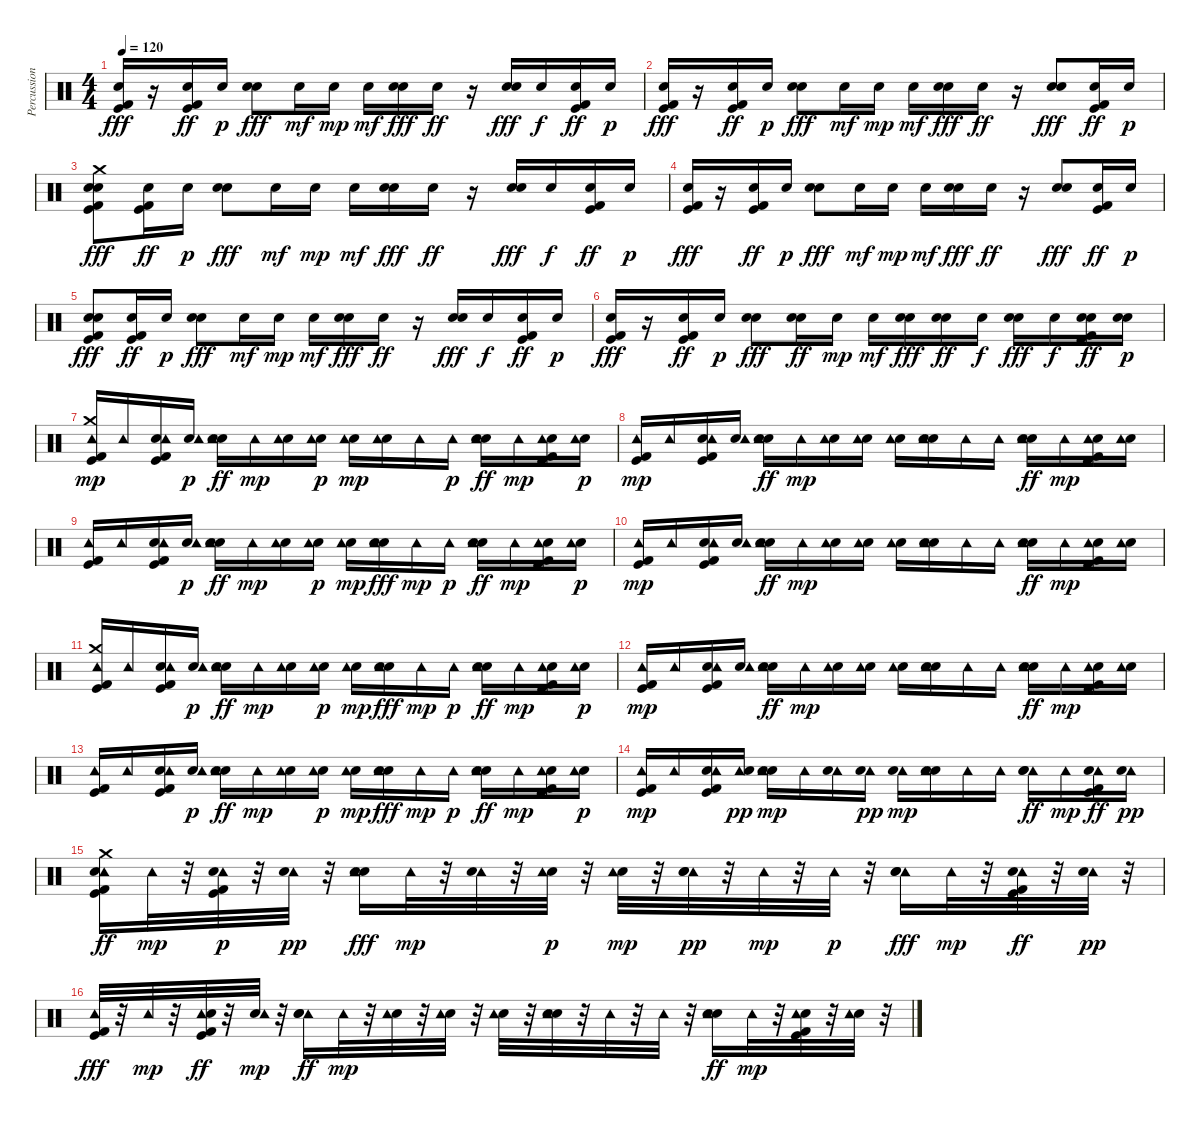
\track ("Percussions" "Percussion") {instrument percussion}
\staff {score}
\articulation defaults
\ts (4 4)
\tempo 120
\clef neutral
\ks c
("Electric Snare (hit)" "Kick (hit) 2" "Kick (hit)").16{dy fff} r.16 ("Electric Snare (hit)" "Kick (hit) 2" "Kick (hit)").16{dy ff} "Electric Snare (hit)".16{dy p} ("Snare (hit) 2" "Electric Snare (hit)").8{dy fff} "Electric Snare (hit)".16{dy mf} "Electric Snare (hit)".16{dy mp} "Electric Snare (hit)".16{dy mf} ("Electric Snare (hit)" "Snare (hit) 2").16{dy fff} "Electric Snare (hit)".16{dy ff} r.16 ("Snare (hit) 2" "Electric Snare (hit)").16{dy fff} "Electric Snare (hit)".16{dy f} ("Electric Snare (hit)" "Kick (hit) 2" "Kick (hit)").16{dy ff} "Electric Snare (hit)".16{dy p} |
("Electric Snare (hit)" "Kick (hit) 2" "Kick (hit)").16{dy fff} r.16 ("Electric Snare (hit)" "Kick (hit) 2" "Kick (hit)").16{dy ff} "Electric Snare (hit)".16{dy p} ("Snare (hit) 2" "Electric Snare (hit)").8{dy fff} "Electric Snare (hit)".16{dy mf} "Electric Snare (hit)".16{dy mp} "Electric Snare (hit)".16{dy mf} ("Electric Snare (hit)" "Snare (hit) 2").16{dy fff} "Electric Snare (hit)".16{dy ff} r.16 ("Electric Snare (hit)" "Snare (hit) 2").8{dy fff} ("Electric Snare (hit)" "Kick (hit) 2" "Kick (hit)").16{dy ff} "Electric Snare (hit)".16{dy p} |
("Electric Snare (hit)" "Kick (hit) 2" "Kick (hit)" "Crash medium (hit)" "Snare (hit) 2").8{dy fff} ("Electric Snare (hit)" "Kick (hit) 2" "Kick (hit)").16{dy ff} "Electric Snare (hit)".16{dy p} ("Snare (hit) 2" "Electric Snare (hit)").8{dy fff} "Electric Snare (hit)".16{dy mf} "Electric Snare (hit)".16{dy mp} "Electric Snare (hit)".16{dy mf} ("Electric Snare (hit)" "Snare (hit) 2").16{dy fff} "Electric Snare (hit)".16{dy ff} r.16 ("Snare (hit) 2" "Electric Snare (hit)").16{dy fff} "Electric Snare (hit)".16{dy f} ("Electric Snare (hit)" "Kick (hit) 2" "Kick (hit)").16{dy ff} "Electric Snare (hit)".16{dy p} |
("Electric Snare (hit)" "Kick (hit) 2" "Kick (hit)").16{dy fff} r.16 ("Electric Snare (hit)" "Kick (hit) 2" "Kick (hit)").16{dy ff} "Electric Snare (hit)".16{dy p} ("Snare (hit) 2" "Electric Snare (hit)").8{dy fff} "Electric Snare (hit)".16{dy mf} "Electric Snare (hit)".16{dy mp} "Electric Snare (hit)".16{dy mf} ("Electric Snare (hit)" "Snare (hit) 2").16{dy fff} "Electric Snare (hit)".16{dy ff} r.16 ("Electric Snare (hit)" "Snare (hit) 2").8{dy fff} ("Electric Snare (hit)" "Kick (hit) 2" "Kick (hit)").16{dy ff} "Electric Snare (hit)".16{dy p} |
("Electric Snare (hit)" "Kick (hit) 2" "Kick (hit)" "Snare (hit) 2").8{dy fff} ("Electric Snare (hit)" "Kick (hit) 2" "Kick (hit)").16{dy ff} "Electric Snare (hit)".16{dy p} ("Snare (hit) 2" "Electric Snare (hit)").8{dy fff} "Electric Snare (hit)".16{dy mf} "Electric Snare (hit)".16{dy mp} "Electric Snare (hit)".16{dy mf} ("Electric Snare (hit)" "Snare (hit) 2").16{dy fff} "Electric Snare (hit)".16{dy ff} r.16 ("Snare (hit) 2" "Electric Snare (hit)").16{dy fff} "Electric Snare (hit)".16{dy f} ("Electric Snare (hit)" "Kick (hit) 2" "Kick (hit)").16{dy ff} "Electric Snare (hit)".16{dy p} |
("Electric Snare (hit)" "Kick (hit) 2" "Kick (hit)").16{dy fff} r.16 ("Electric Snare (hit)" "Kick (hit) 2" "Kick (hit)").16{dy ff} "Electric Snare (hit)".16{dy p} ("Snare (hit) 2" "Electric Snare (hit)").8{dy fff} ("Electric Snare (hit)" "Snare (hit) 2").16{dy ff} "Electric Snare (hit)".16{dy mp} "Electric Snare (hit)".16{dy mf} ("Electric Snare (hit)" "Snare (hit) 2").16{dy fff} ("Electric Snare (hit)" "Snare (hit) 2").16{dy ff} "Snare (hit) 2".16{dy f} ("Electric Snare (hit)" "Snare (hit) 2").16{dy fff} "Snare (hit) 2".16{dy f} ("Electric Snare (hit)" "Kick (hit) 2" "Kick (hit)" "Snare (hit) 2").16{dy ff} ("Electric Snare (hit)" "Snare (hit) 2").16{dy p} |
("Kick (hit) 2" "Kick (hit)" "Crash medium (hit)" "Tambourine (hit)").16{dy mp} "Tambourine (hit)".16 ("Electric Snare (hit)" "Kick (hit) 2" "Kick (hit)" "Tambourine (hit)").16 ("Electric Snare (hit)" "Tambourine (hit)").16{dy p} ("Snare (hit) 2" "Tambourine (hit)" "Electric Snare (hit)").16{dy ff} "Tambourine (hit)".16{dy mp} ("Electric Snare (hit)" "Tambourine (hit)").16 ("Electric Snare (hit)" "Tambourine (hit)").16{dy p} ("Electric Snare (hit)" "Tambourine (hit)").16{dy mp} ("Electric Snare (hit)" "Tambourine (hit)").16 "Tambourine (hit)".16 "Tambourine (hit)".16{dy p} ("Snare (hit) 2" "Tambourine (hit)" "Electric Snare (hit)").16{dy ff} "Tambourine (hit)".16{dy mp} ("Electric Snare (hit)" "Kick (hit) 2" "Kick (hit)" "Tambourine (hit)").16 ("Electric Snare (hit)" "Tambourine (hit)").16{dy p} |
("Kick (hit) 2" "Kick (hit)" "Tambourine (hit)").16{dy mp} "Tambourine (hit)".16 ("Electric Snare (hit)" "Kick (hit) 2" "Kick (hit)" "Tambourine (hit)").16 ("Electric Snare (hit)" "Tambourine (hit)").16 ("Snare (hit) 2" "Tambourine (hit)" "Electric Snare (hit)").16{dy ff} "Tambourine (hit)".16{dy mp} ("Electric Snare (hit)" "Tambourine (hit)").16 ("Electric Snare (hit)" "Tambourine (hit)").16 ("Electric Snare (hit)" "Tambourine (hit)").16 ("Electric Snare (hit)" "Snare (hit) 2" "Tambourine (hit)").16 "Tambourine (hit)".16 "Tambourine (hit)".16 ("Snare (hit) 2" "Tambourine (hit)" "Electric Snare (hit)").16{dy ff} "Tambourine (hit)".16{dy mp} ("Electric Snare (hit)" "Kick (hit) 2" "Kick (hit)" "Tambourine (hit)").16 ("Electric Snare (hit)" "Tambourine (hit)").16 |
("Kick (hit) 2" "Kick (hit)" "Tambourine (hit)").16 "Tambourine (hit)".16 ("Electric Snare (hit)" "Kick (hit) 2" "Kick (hit)" "Tambourine (hit)").16 ("Electric Snare (hit)" "Tambourine (hit)").16{dy p} ("Snare (hit) 2" "Tambourine (hit)" "Electric Snare (hit)").16{dy ff} "Tambourine (hit)".16{dy mp} ("Electric Snare (hit)" "Tambourine (hit)").16 ("Electric Snare (hit)" "Tambourine (hit)").16{dy p} ("Electric Snare (hit)" "Tambourine (hit)").16{dy mp} ("Electric Snare (hit)" "Tambourine (hit)" "Snare (hit) 2").16{dy fff} "Tambourine (hit)".16{dy mp} "Tambourine (hit)".16{dy p} ("Snare (hit) 2" "Tambourine (hit)" "Electric Snare (hit)").16{dy ff} "Tambourine (hit)".16{dy mp} ("Electric Snare (hit)" "Kick (hit) 2" "Kick (hit)" "Tambourine (hit)").16 ("Electric Snare (hit)" "Tambourine (hit)").16{dy p} |
("Kick (hit) 2" "Kick (hit)" "Tambourine (hit)").16{dy mp} "Tambourine (hit)".16 ("Electric Snare (hit)" "Kick (hit) 2" "Kick (hit)" "Tambourine (hit)").16 ("Electric Snare (hit)" "Tambourine (hit)").16 ("Snare (hit) 2" "Tambourine (hit)" "Electric Snare (hit)").16{dy ff} "Tambourine (hit)".16{dy mp} ("Electric Snare (hit)" "Tambourine (hit)").16 ("Electric Snare (hit)" "Tambourine (hit)").16 ("Electric Snare (hit)" "Tambourine (hit)").16 ("Electric Snare (hit)" "Snare (hit) 2" "Tambourine (hit)").16 "Tambourine (hit)".16 "Tambourine (hit)".16 ("Snare (hit) 2" "Tambourine (hit)" "Electric Snare (hit)").16{dy ff} "Tambourine (hit)".16{dy mp} ("Electric Snare (hit)" "Kick (hit) 2" "Kick (hit)" "Tambourine (hit)").16 ("Electric Snare (hit)" "Tambourine (hit)").16 |
("Kick (hit) 2" "Kick (hit)" "Crash medium (hit)" "Tambourine (hit)").16 "Tambourine (hit)".16 ("Electric Snare (hit)" "Kick (hit) 2" "Kick (hit)" "Tambourine (hit)").16 ("Electric Snare (hit)" "Tambourine (hit)").16{dy p} ("Snare (hit) 2" "Tambourine (hit)" "Electric Snare (hit)").16{dy ff} "Tambourine (hit)".16{dy mp} ("Electric Snare (hit)" "Tambourine (hit)").16 ("Electric Snare (hit)" "Tambourine (hit)").16{dy p} ("Electric Snare (hit)" "Tambourine (hit)").16{dy mp} ("Electric Snare (hit)" "Tambourine (hit)" "Snare (hit) 2").16{dy fff} "Tambourine (hit)".16{dy mp} "Tambourine (hit)".16{dy p} ("Snare (hit) 2" "Tambourine (hit)" "Electric Snare (hit)").16{dy ff} "Tambourine (hit)".16{dy mp} ("Electric Snare (hit)" "Kick (hit) 2" "Kick (hit)" "Tambourine (hit)").16 ("Electric Snare (hit)" "Tambourine (hit)").16{dy p} |
("Kick (hit) 2" "Kick (hit)" "Tambourine (hit)").16{dy mp} "Tambourine (hit)".16 ("Electric Snare (hit)" "Kick (hit) 2" "Kick (hit)" "Tambourine (hit)").16 ("Electric Snare (hit)" "Tambourine (hit)").16 ("Snare (hit) 2" "Tambourine (hit)" "Electric Snare (hit)").16{dy ff} "Tambourine (hit)".16{dy mp} ("Electric Snare (hit)" "Tambourine (hit)").16 ("Electric Snare (hit)" "Tambourine (hit)").16 ("Electric Snare (hit)" "Tambourine (hit)").16 ("Electric Snare (hit)" "Snare (hit) 2" "Tambourine (hit)").16 "Tambourine (hit)".16 "Tambourine (hit)".16 ("Snare (hit) 2" "Tambourine (hit)" "Electric Snare (hit)").16{dy ff} "Tambourine (hit)".16{dy mp} ("Electric Snare (hit)" "Kick (hit) 2" "Kick (hit)" "Tambourine (hit)").16 ("Electric Snare (hit)" "Tambourine (hit)").16 |
("Kick (hit) 2" "Kick (hit)" "Tambourine (hit)").16 "Tambourine (hit)".16 ("Electric Snare (hit)" "Kick (hit) 2" "Kick (hit)" "Tambourine (hit)").16 ("Electric Snare (hit)" "Tambourine (hit)").16{dy p} ("Snare (hit) 2" "Tambourine (hit)" "Electric Snare (hit)").16{dy ff} "Tambourine (hit)".16{dy mp} ("Electric Snare (hit)" "Tambourine (hit)").16 ("Electric Snare (hit)" "Tambourine (hit)").16{dy p} ("Electric Snare (hit)" "Tambourine (hit)").16{dy mp} ("Electric Snare (hit)" "Tambourine (hit)" "Snare (hit) 2").16{dy fff} "Tambourine (hit)".16{dy mp} "Tambourine (hit)".16{dy p} ("Snare (hit) 2" "Tambourine (hit)" "Electric Snare (hit)").16{dy ff} "Tambourine (hit)".16{dy mp} ("Electric Snare (hit)" "Kick (hit) 2" "Kick (hit)" "Tambourine (hit)").16 ("Electric Snare (hit)" "Tambourine (hit)").16{dy p} |
("Kick (hit)" "Kick (hit) 2" "Tambourine (hit)").16{dy mp} "Tambourine (hit)".16 ("Electric Snare (hit)" "Kick (hit)" "Kick (hit) 2" "Tambourine (hit)").16 ("Tambourine (hit)" "Electric Snare (hit)").16{dy pp} ("Snare (hit) 2" "Electric Snare (hit)" "Tambourine (hit)").16{dy mp} "Tambourine (hit)".16 ("Tambourine (hit)" "Electric Snare (hit)").16 ("Tambourine (hit)" "Electric Snare (hit)").16{dy pp} ("Tambourine (hit)" "Electric Snare (hit)").16{dy mp} ("Snare (hit) 2" "Electric Snare (hit)" "Tambourine (hit)").16 "Tambourine (hit)".16 "Tambourine (hit)".16 ("Tambourine (hit)" "Snare (hit) 2" "Electric Snare (hit)").16{dy ff} "Tambourine (hit)".16{dy mp} ("Tambourine (hit)" "Electric Snare (hit)" "Kick (hit) 2" "Kick (hit)").16{dy ff} ("Tambourine (hit)" "Electric Snare (hit)").16{dy pp} |
("Kick (hit)" "Crash medium (hit)" "Tambourine (hit)" "Kick (hit) 2" "Electric Snare (hit)").16{dy ff} "Tambourine (hit)".32{dy mp} r.32 ("Kick (hit)" "Tambourine (hit)" "Kick (hit) 2" "Electric Snare (hit)").32{dy p} r.32 ("Tambourine (hit)" "Electric Snare (hit)").32{dy pp} r.32 ("Electric Snare (hit)" "Tambourine (hit)" "Snare (hit) 2").16{dy fff} "Tambourine (hit)".32{dy mp} r.32 ("Tambourine (hit)" "Electric Snare (hit)").32 r.32 ("Electric Snare (hit)" "Tambourine (hit)").32{dy p} r.32 ("Electric Snare (hit)" "Tambourine (hit)").32{dy mp} r.32 ("Tambourine (hit)" "Snare (hit) 2" "Electric Snare (hit)").32{dy pp} r.32 "Tambourine (hit)".32{dy mp} r.32 "Tambourine (hit)".32{dy p} r.32 ("Tambourine (hit)" "Electric Snare (hit)" "Snare (hit) 2").16{dy fff} "Tambourine (hit)".32{dy mp} r.32 ("Tambourine (hit)" "Kick (hit)" "Electric Snare (hit)" "Kick (hit) 2").32{dy ff} r.32 ("Tambourine (hit)" "Electric Snare (hit)").32{dy pp} r.32 |
("Kick (hit)" "Tambourine (hit)" "Kick (hit) 2").32{dy fff} r.32 "Tambourine (hit)".32{dy mp} r.32 ("Tambourine (hit)" "Kick (hit)" "Electric Snare (hit)" "Kick (hit) 2").32{dy ff} r.32 ("Electric Snare (hit)" "Tambourine (hit)").32{dy mp} r.32 ("Tambourine (hit)" "Snare (hit) 2" "Electric Snare (hit)").16{dy ff} "Tambourine (hit)".32{dy mp} r.32 ("Electric Snare (hit)" "Tambourine (hit)").32 r.32 ("Electric Snare (hit)" "Tambourine (hit)").32 r.32 ("Electric Snare (hit)" "Tambourine (hit)").32 r.32 ("Electric Snare (hit)" "Snare (hit) 2" "Tambourine (hit)").32 r.32 "Tambourine (hit)".32 r.32 "Tambourine (hit)".32 r.32 ("Snare (hit) 2" "Tambourine (hit)" "Electric Snare (hit)").16{dy ff} "Tambourine (hit)".32{dy mp} r.32 ("Electric Snare (hit)" "Kick (hit) 2" "Kick (hit)" "Tambourine (hit)").32 r.32 ("Electric Snare (hit)" "Tambourine (hit)").32 r.32
